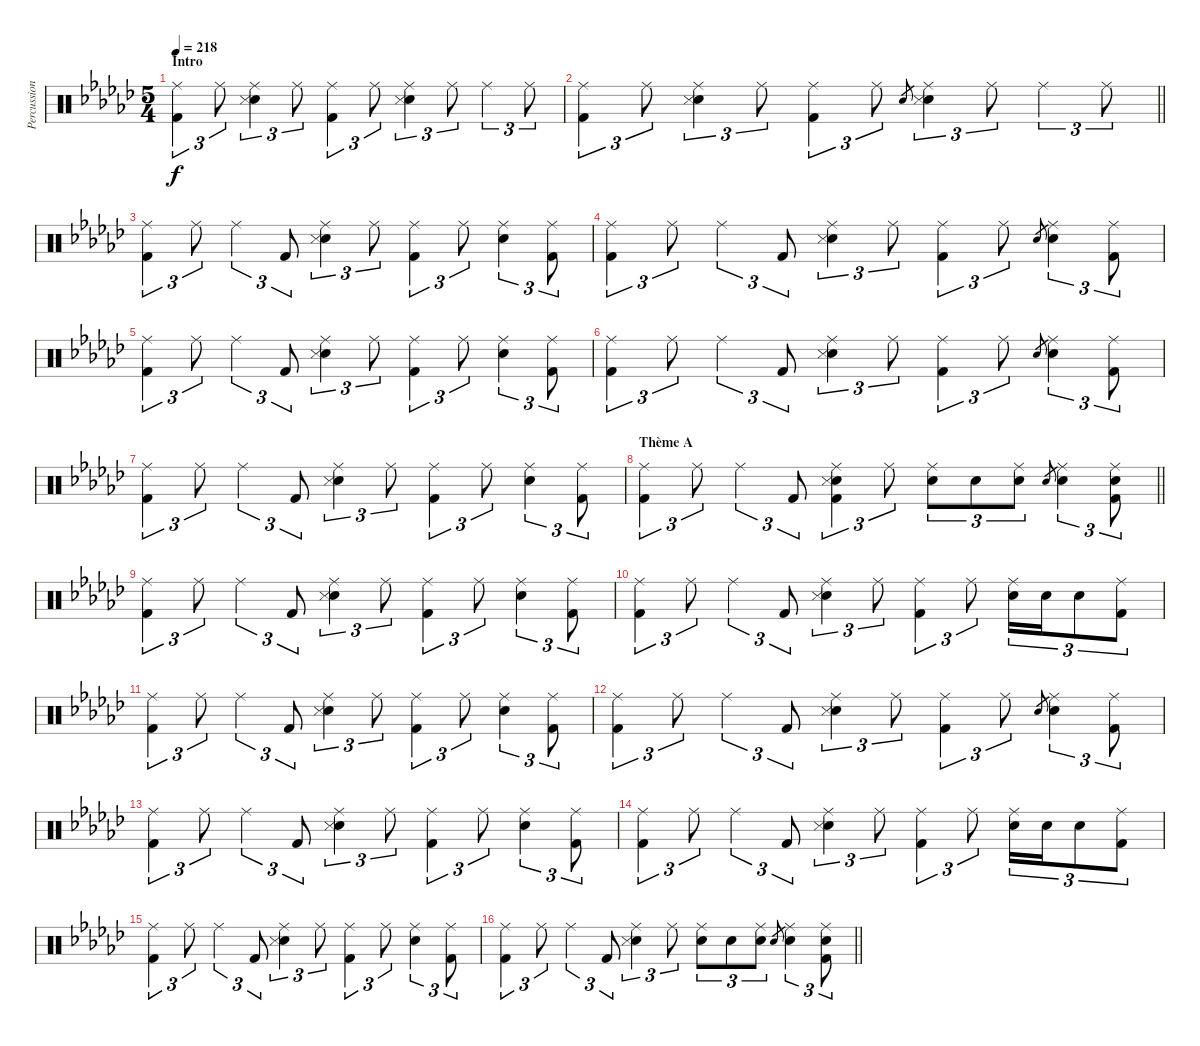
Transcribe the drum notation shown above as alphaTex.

\track ("Percussions" "Percussion") {instrument percussion}
\staff {score}
\articulation defaults
\ts (5 4)
\section ("" "Intro")
\tempo 218
\clef neutral
\ks ebminor
("Ride (middle)" "Kick (hit) 2").4{tu (3 2) dy f volume 14 balance 8} "Ride (middle)".8{tu (3 2)} ("Ride (middle)" "Snare (hit) 2" "Snare (side stick) 3").4{tu (3 2)} "Ride (middle)".8{tu (3 2)} ("Ride (middle)" "Kick (hit) 2").4{tu (3 2)} "Ride (middle)".8{tu (3 2)} ("Ride (middle)" "Snare (hit) 2" "Snare (side stick) 3").4{tu (3 2)} "Ride (middle)".8{tu (3 2)} "Ride (middle)".4{tu (3 2)} "Ride (middle)".8{tu (3 2)} |
\barLineRight lightlight
("Ride (middle)" "Kick (hit) 2").4{tu (3 2)} "Ride (middle)".8{tu (3 2)} ("Ride (middle)" "Snare (hit) 2" "Snare (side stick) 3").4{tu (3 2)} "Ride (middle)".8{tu (3 2)} ("Ride (middle)" "Kick (hit) 2").4{tu (3 2)} "Ride (middle)".8{tu (3 2)} "Snare (hit) 2".8{gr} ("Ride (middle)" "Snare (hit) 2" "Snare (side stick) 3").4{tu (3 2)} "Ride (middle)".8{tu (3 2)} "Ride (middle)".4{tu (3 2)} "Ride (middle)".8{tu (3 2)} |
("Ride (middle)" "Kick (hit) 2").4{tu (3 2)} "Ride (middle)".8{tu (3 2)} "Ride (middle)".4{tu (3 2)} "Kick (hit) 2".8{tu (3 2)} ("Ride (middle)" "Snare (hit) 2" "Snare (side stick) 3").4{tu (3 2)} "Ride (middle)".8{tu (3 2)} ("Ride (middle)" "Kick (hit) 2").4{tu (3 2)} "Ride (middle)".8{tu (3 2)} ("Ride (middle)" "Snare (hit) 2").4{tu (3 2)} ("Ride (middle)" "Kick (hit) 2").8{tu (3 2)} |
("Ride (middle)" "Kick (hit) 2").4{tu (3 2)} "Ride (middle)".8{tu (3 2)} "Ride (middle)".4{tu (3 2)} "Kick (hit) 2".8{tu (3 2)} ("Ride (middle)" "Snare (hit) 2" "Snare (side stick) 3").4{tu (3 2)} "Ride (middle)".8{tu (3 2)} ("Ride (middle)" "Kick (hit) 2").4{tu (3 2)} "Ride (middle)".8{tu (3 2)} "Snare (hit) 2".8{gr} ("Ride (middle)" "Snare (hit) 2").4{tu (3 2)} ("Ride (middle)" "Kick (hit) 2").8{tu (3 2)} |
("Ride (middle)" "Kick (hit) 2").4{tu (3 2)} "Ride (middle)".8{tu (3 2)} "Ride (middle)".4{tu (3 2)} "Kick (hit) 2".8{tu (3 2)} ("Ride (middle)" "Snare (hit) 2" "Snare (side stick) 3").4{tu (3 2)} "Ride (middle)".8{tu (3 2)} ("Ride (middle)" "Kick (hit) 2").4{tu (3 2)} "Ride (middle)".8{tu (3 2)} ("Ride (middle)" "Snare (hit) 2").4{tu (3 2)} ("Ride (middle)" "Kick (hit) 2").8{tu (3 2)} |
("Ride (middle)" "Kick (hit) 2").4{tu (3 2)} "Ride (middle)".8{tu (3 2)} "Ride (middle)".4{tu (3 2)} "Kick (hit) 2".8{tu (3 2)} ("Ride (middle)" "Snare (hit) 2" "Snare (side stick) 3").4{tu (3 2)} "Ride (middle)".8{tu (3 2)} ("Ride (middle)" "Kick (hit) 2").4{tu (3 2)} "Ride (middle)".8{tu (3 2)} "Snare (hit) 2".8{gr} ("Ride (middle)" "Snare (hit) 2").4{tu (3 2)} ("Ride (middle)" "Kick (hit) 2").8{tu (3 2)} |
("Ride (middle)" "Kick (hit) 2").4{tu (3 2)} "Ride (middle)".8{tu (3 2)} "Ride (middle)".4{tu (3 2)} "Kick (hit) 2".8{tu (3 2)} ("Ride (middle)" "Snare (hit) 2" "Snare (side stick) 3").4{tu (3 2)} "Ride (middle)".8{tu (3 2)} ("Ride (middle)" "Kick (hit) 2").4{tu (3 2)} "Ride (middle)".8{tu (3 2)} ("Ride (middle)" "Snare (hit) 2").4{tu (3 2)} ("Ride (middle)" "Kick (hit) 2").8{tu (3 2)} |
\section ("" "Thème A")
\barLineRight lightlight
("Ride (middle)" "Kick (hit) 2").4{tu (3 2)} "Ride (middle)".8{tu (3 2)} "Ride (middle)".4{tu (3 2)} "Kick (hit) 2".8{tu (3 2)} ("Ride (middle)" "Snare (hit) 2" "Snare (side stick) 3" "Kick (hit) 2").4{tu (3 2)} "Ride (middle)".8{tu (3 2)} ("Ride (middle)" "Snare (hit) 2").8{tu (3 2)} "Snare (hit) 2".8{tu (3 2)} ("Ride (middle)" "Snare (hit) 2").8{tu (3 2)} "Snare (hit) 2".8{gr} ("Ride (middle)" "Snare (hit) 2").4{tu (3 2)} ("Ride (middle)" "Snare (hit) 2" "Kick (hit) 2").8{tu (3 2)} |
("Ride (middle)" "Kick (hit) 2").4{tu (3 2)} "Ride (middle)".8{tu (3 2)} "Ride (middle)".4{tu (3 2)} "Kick (hit) 2".8{tu (3 2)} ("Ride (middle)" "Snare (hit) 2" "Snare (side stick) 3").4{tu (3 2)} "Ride (middle)".8{tu (3 2)} ("Ride (middle)" "Kick (hit) 2").4{tu (3 2)} "Ride (middle)".8{tu (3 2)} ("Ride (middle)" "Snare (hit) 2").4{tu (3 2)} ("Ride (middle)" "Kick (hit) 2").8{tu (3 2)} |
("Ride (middle)" "Kick (hit) 2").4{tu (3 2)} "Ride (middle)".8{tu (3 2)} "Ride (middle)".4{tu (3 2)} "Kick (hit) 2".8{tu (3 2)} ("Ride (middle)" "Snare (hit) 2" "Snare (side stick) 3").4{tu (3 2)} "Ride (middle)".8{tu (3 2)} ("Ride (middle)" "Kick (hit) 2").4{tu (3 2)} "Ride (middle)".8{tu (3 2)} ("Ride (middle)" "Snare (hit) 2").16{tu (3 2)} "Snare (hit) 2".16{tu (3 2)} "Snare (hit) 2".8{tu (3 2)} ("Ride (middle)" "Kick (hit) 2").8{tu (3 2)} |
("Ride (middle)" "Kick (hit) 2").4{tu (3 2)} "Ride (middle)".8{tu (3 2)} "Ride (middle)".4{tu (3 2)} "Kick (hit) 2".8{tu (3 2)} ("Ride (middle)" "Snare (hit) 2" "Snare (side stick) 3").4{tu (3 2)} "Ride (middle)".8{tu (3 2)} ("Ride (middle)" "Kick (hit) 2").4{tu (3 2)} "Ride (middle)".8{tu (3 2)} ("Ride (middle)" "Snare (hit) 2").4{tu (3 2)} ("Ride (middle)" "Kick (hit) 2").8{tu (3 2)} |
("Ride (middle)" "Kick (hit) 2").4{tu (3 2)} "Ride (middle)".8{tu (3 2)} "Ride (middle)".4{tu (3 2)} "Kick (hit) 2".8{tu (3 2)} ("Ride (middle)" "Snare (hit) 2" "Snare (side stick) 3").4{tu (3 2)} "Ride (middle)".8{tu (3 2)} ("Ride (middle)" "Kick (hit) 2").4{tu (3 2)} "Ride (middle)".8{tu (3 2)} "Snare (hit) 2".8{gr} ("Ride (middle)" "Snare (hit) 2").4{tu (3 2)} ("Ride (middle)" "Kick (hit) 2").8{tu (3 2)} |
("Ride (middle)" "Kick (hit) 2").4{tu (3 2)} "Ride (middle)".8{tu (3 2)} "Ride (middle)".4{tu (3 2)} "Kick (hit) 2".8{tu (3 2)} ("Ride (middle)" "Snare (hit) 2" "Snare (side stick) 3").4{tu (3 2)} "Ride (middle)".8{tu (3 2)} ("Ride (middle)" "Kick (hit) 2").4{tu (3 2)} "Ride (middle)".8{tu (3 2)} ("Ride (middle)" "Snare (hit) 2").4{tu (3 2)} ("Ride (middle)" "Kick (hit) 2").8{tu (3 2)} |
("Ride (middle)" "Kick (hit) 2").4{tu (3 2)} "Ride (middle)".8{tu (3 2)} "Ride (middle)".4{tu (3 2)} "Kick (hit) 2".8{tu (3 2)} ("Ride (middle)" "Snare (hit) 2" "Snare (side stick) 3").4{tu (3 2)} "Ride (middle)".8{tu (3 2)} ("Ride (middle)" "Kick (hit) 2").4{tu (3 2)} "Ride (middle)".8{tu (3 2)} ("Ride (middle)" "Snare (hit) 2").16{tu (3 2)} "Snare (hit) 2".16{tu (3 2)} "Snare (hit) 2".8{tu (3 2)} ("Ride (middle)" "Kick (hit) 2").8{tu (3 2)} |
("Ride (middle)" "Kick (hit) 2").4{tu (3 2)} "Ride (middle)".8{tu (3 2)} "Ride (middle)".4{tu (3 2)} "Kick (hit) 2".8{tu (3 2)} ("Ride (middle)" "Snare (hit) 2" "Snare (side stick) 3").4{tu (3 2)} "Ride (middle)".8{tu (3 2)} ("Ride (middle)" "Kick (hit) 2").4{tu (3 2)} "Ride (middle)".8{tu (3 2)} ("Ride (middle)" "Snare (hit) 2").4{tu (3 2)} ("Ride (middle)" "Kick (hit) 2").8{tu (3 2)} |
\barLineRight lightlight
("Ride (middle)" "Kick (hit) 2").4{tu (3 2)} "Ride (middle)".8{tu (3 2)} "Ride (middle)".4{tu (3 2)} "Kick (hit) 2".8{tu (3 2)} ("Ride (middle)" "Snare (hit) 2" "Snare (side stick) 3").4{tu (3 2)} "Ride (middle)".8{tu (3 2)} ("Ride (middle)" "Snare (hit) 2").8{tu (3 2)} "Snare (hit) 2".8{tu (3 2)} ("Ride (middle)" "Snare (hit) 2").8{tu (3 2)} "Snare (hit) 2".8{gr} ("Ride (middle)" "Snare (hit) 2").4{tu (3 2)} ("Ride (middle)" "Snare (hit) 2" "Kick (hit) 2").8{tu (3 2)}
